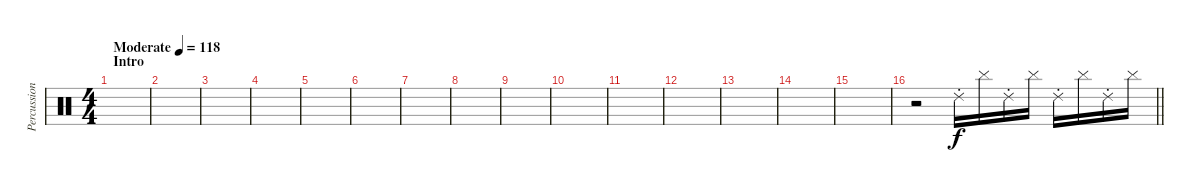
\track ("Percussions" "Percussion") {instrument percussion}
\staff {score}
\articulation defaults
\ts (4 4)
\section ("" "Intro")
\tempo (118 "Moderate")
\clef neutral
\ks c
|
|
|
|
|
|
|
|
|
|
|
|
|
|
|
\barLineRight lightlight
r.2 "Ride (choke) 2".16 "Cymbal (hit)".16 "Ride (choke) 2".16 "Cymbal (hit)".16 "Ride (choke) 2".16 "Cymbal (hit)".16 "Ride (choke) 2".16 "Cymbal (hit)".16
